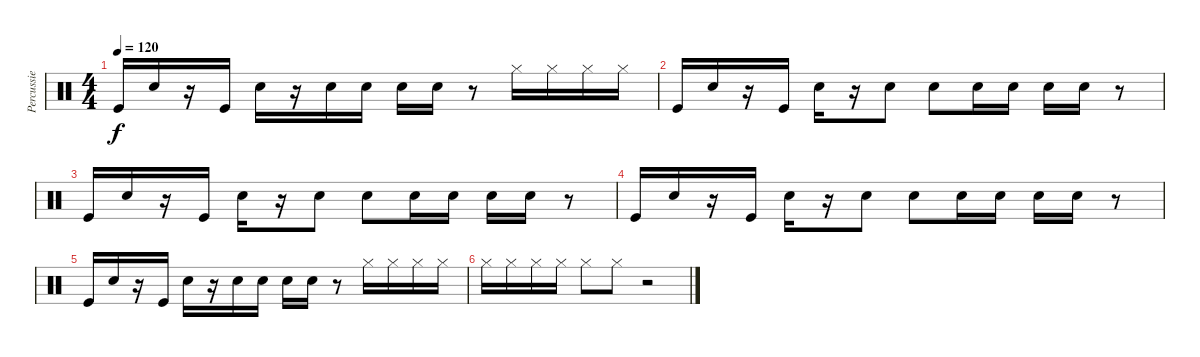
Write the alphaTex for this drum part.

\track ("Percussie" "Percussie") {instrument percussion}
\staff {score}
\articulation defaults
\ts (4 4)
\tempo 120
\clef neutral
\ks c "Kick (hit)".16{dy f} "Snare (hit) 2".16
r.16 "Kick (hit)".16 "Snare (hit) 2".16 r.16 "Snare (hit) 2".16 "Snare (hit) 2".16 "Snare (hit) 2".16 "Snare (hit) 2".16 r.8 "Hi-Hat (closed)".16 "Hi-Hat (closed)".16 "Hi-Hat (closed)".16 "Hi-Hat (closed)".16 |
"Kick (hit)".16 "Snare (hit) 2".16 r.16 "Kick (hit)".16 "Snare (hit) 2".16 r.16 "Snare (hit) 2".8 "Snare (hit) 2".8 "Snare (hit) 2".16 "Snare (hit) 2".16 "Snare (hit) 2".16 "Snare (hit) 2".16 r.8 |
"Kick (hit)".16 "Snare (hit) 2".16 r.16 "Kick (hit)".16 "Snare (hit) 2".16 r.16 "Snare (hit) 2".8 "Snare (hit) 2".8 "Snare (hit) 2".16 "Snare (hit) 2".16 "Snare (hit) 2".16 "Snare (hit) 2".16 r.8 |
"Kick (hit)".16 "Snare (hit) 2".16 r.16 "Kick (hit)".16 "Snare (hit) 2".16 r.16 "Snare (hit) 2".8 "Snare (hit) 2".8 "Snare (hit) 2".16 "Snare (hit) 2".16 "Snare (hit) 2".16 "Snare (hit) 2".16 r.8 |
"Kick (hit)".16 "Snare (hit) 2".16 r.16 "Kick (hit)".16 "Snare (hit) 2".16 r.16 "Snare (hit) 2".16 "Snare (hit) 2".16 "Snare (hit) 2".16 "Snare (hit) 2".16 r.8 "Hi-Hat (closed)".16 "Hi-Hat (closed)".16 "Hi-Hat (closed)".16 "Hi-Hat (closed)".16 |
"Hi-Hat (closed)".16 "Hi-Hat (closed)".16 "Hi-Hat (closed)".16 "Hi-Hat (closed)".16 "Hi-Hat (closed)".8 "Hi-Hat (closed)".8 r.2
